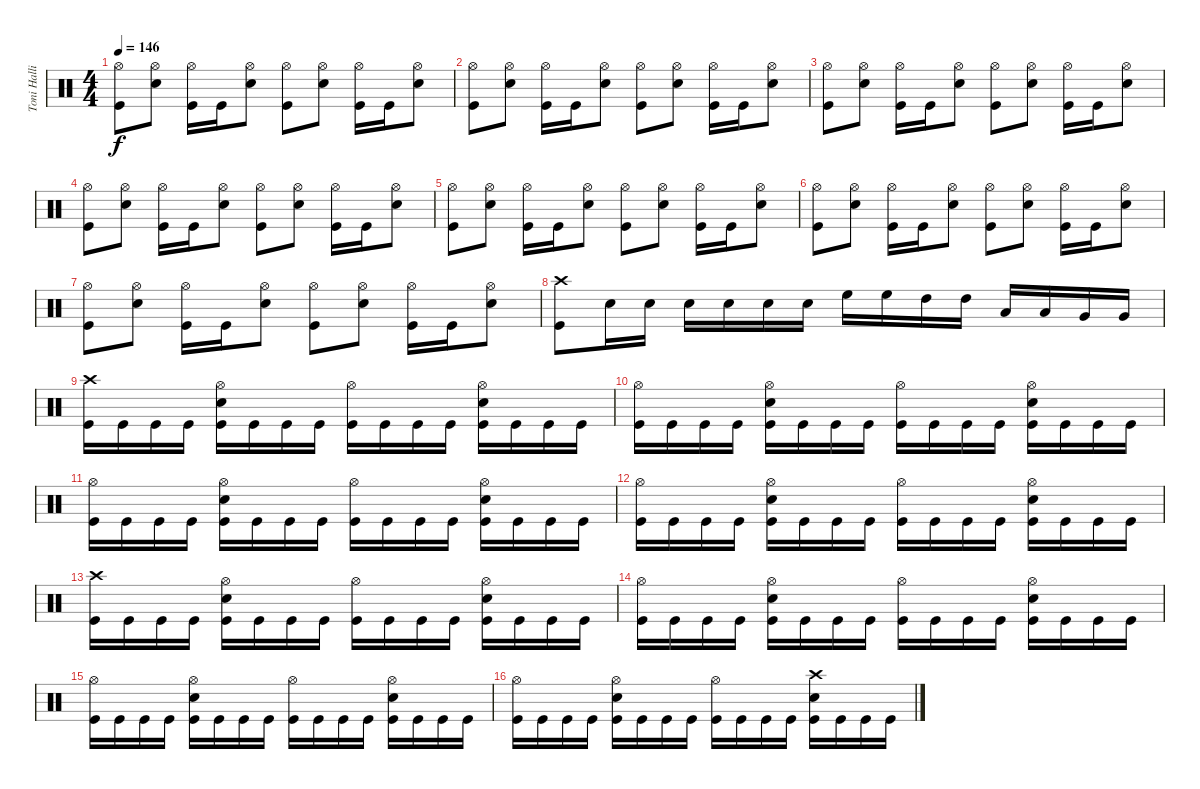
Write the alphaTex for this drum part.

\track ("Toni Hallio" "Toni Halli") {instrument percussion}
\staff {score}
\articulation defaults
\ts (4 4)
\tempo 146
\clef neutral
\ks c
("Hi-Hat (open)" "Kick (hit)").8{dy f} ("Hi-Hat (open)" "Snare (hit) 2").8 ("Hi-Hat (open)" "Kick (hit)").16 "Kick (hit)".16 ("Hi-Hat (open)" "Snare (hit) 2").8 ("Hi-Hat (open)" "Kick (hit)").8 ("Hi-Hat (open)" "Snare (hit) 2").8 ("Hi-Hat (open)" "Kick (hit)").16 "Kick (hit)".16 ("Hi-Hat (open)" "Snare (hit) 2").8 |
("Hi-Hat (open)" "Kick (hit)").8 ("Hi-Hat (open)" "Snare (hit) 2").8 ("Hi-Hat (open)" "Kick (hit)").16 "Kick (hit)".16 ("Hi-Hat (open)" "Snare (hit) 2").8 ("Hi-Hat (open)" "Kick (hit)").8 ("Hi-Hat (open)" "Snare (hit) 2").8 ("Hi-Hat (open)" "Kick (hit)").16 "Kick (hit)".16 ("Hi-Hat (open)" "Snare (hit) 2").8 |
("Hi-Hat (open)" "Kick (hit)").8 ("Hi-Hat (open)" "Snare (hit) 2").8 ("Hi-Hat (open)" "Kick (hit)").16 "Kick (hit)".16 ("Hi-Hat (open)" "Snare (hit) 2").8 ("Hi-Hat (open)" "Kick (hit)").8 ("Hi-Hat (open)" "Snare (hit) 2").8 ("Hi-Hat (open)" "Kick (hit)").16 "Kick (hit)".16 ("Hi-Hat (open)" "Snare (hit) 2").8 |
("Hi-Hat (open)" "Kick (hit)").8 ("Hi-Hat (open)" "Snare (hit) 2").8 ("Hi-Hat (open)" "Kick (hit)").16 "Kick (hit)".16 ("Hi-Hat (open)" "Snare (hit) 2").8 ("Hi-Hat (open)" "Kick (hit)").8 ("Hi-Hat (open)" "Snare (hit) 2").8 ("Hi-Hat (open)" "Kick (hit)").16 "Kick (hit)".16 ("Hi-Hat (open)" "Snare (hit) 2").8 |
("Hi-Hat (open)" "Kick (hit)").8 ("Hi-Hat (open)" "Snare (hit) 2").8 ("Hi-Hat (open)" "Kick (hit)").16 "Kick (hit)".16 ("Hi-Hat (open)" "Snare (hit) 2").8 ("Hi-Hat (open)" "Kick (hit)").8 ("Hi-Hat (open)" "Snare (hit) 2").8 ("Hi-Hat (open)" "Kick (hit)").16 "Kick (hit)".16 ("Hi-Hat (open)" "Snare (hit) 2").8 |
("Hi-Hat (open)" "Kick (hit)").8 ("Hi-Hat (open)" "Snare (hit) 2").8 ("Hi-Hat (open)" "Kick (hit)").16 "Kick (hit)".16 ("Hi-Hat (open)" "Snare (hit) 2").8 ("Hi-Hat (open)" "Kick (hit)").8 ("Hi-Hat (open)" "Snare (hit) 2").8 ("Hi-Hat (open)" "Kick (hit)").16 "Kick (hit)".16 ("Hi-Hat (open)" "Snare (hit) 2").8 |
("Hi-Hat (open)" "Kick (hit)").8 ("Hi-Hat (open)" "Snare (hit) 2").8 ("Hi-Hat (open)" "Kick (hit)").16 "Kick (hit)".16 ("Hi-Hat (open)" "Snare (hit) 2").8 ("Hi-Hat (open)" "Kick (hit)").8 ("Hi-Hat (open)" "Snare (hit) 2").8 ("Hi-Hat (open)" "Kick (hit)").16 "Kick (hit)".16 ("Hi-Hat (open)" "Snare (hit) 2").8 |
("Crash high (hit)" "Kick (hit)").8 "Snare (hit) 2".16 "Snare (hit) 2".16 "Snare (hit) 2".16 "Snare (hit) 2".16 "Snare (hit) 2".16 "Snare (hit) 2".16 "High Floor Tom (hit)".16 "High Floor Tom (hit)".16 "High Tom (hit)".16 "High Tom (hit)".16 "Low Tom (hit)".16 "Low Tom (hit)".16 "Very Low Tom (hit)".16 "Very Low Tom (hit)".16 |
("Crash high (hit)" "Kick (hit)").16 "Kick (hit)".16 "Kick (hit)".16 "Kick (hit)".16 ("Hi-Hat (open)" "Snare (hit) 2" "Kick (hit)").16 "Kick (hit)".16 "Kick (hit)".16 "Kick (hit)".16 ("Hi-Hat (open)" "Kick (hit)").16 "Kick (hit)".16 "Kick (hit)".16 "Kick (hit)".16 ("Hi-Hat (open)" "Snare (hit) 2" "Kick (hit)").16 "Kick (hit)".16 "Kick (hit)".16 "Kick (hit)".16 |
("Hi-Hat (open)" "Kick (hit)").16 "Kick (hit)".16 "Kick (hit)".16 "Kick (hit)".16 ("Hi-Hat (open)" "Snare (hit) 2" "Kick (hit)").16 "Kick (hit)".16 "Kick (hit)".16 "Kick (hit)".16 ("Hi-Hat (open)" "Kick (hit)").16 "Kick (hit)".16 "Kick (hit)".16 "Kick (hit)".16 ("Hi-Hat (open)" "Snare (hit) 2" "Kick (hit)").16 "Kick (hit)".16 "Kick (hit)".16 "Kick (hit)".16 |
("Hi-Hat (open)" "Kick (hit)").16 "Kick (hit)".16 "Kick (hit)".16 "Kick (hit)".16 ("Hi-Hat (open)" "Snare (hit) 2" "Kick (hit)").16 "Kick (hit)".16 "Kick (hit)".16 "Kick (hit)".16 ("Hi-Hat (open)" "Kick (hit)").16 "Kick (hit)".16 "Kick (hit)".16 "Kick (hit)".16 ("Hi-Hat (open)" "Snare (hit) 2" "Kick (hit)").16 "Kick (hit)".16 "Kick (hit)".16 "Kick (hit)".16 |
("Hi-Hat (open)" "Kick (hit)").16 "Kick (hit)".16 "Kick (hit)".16 "Kick (hit)".16 ("Hi-Hat (open)" "Snare (hit) 2" "Kick (hit)").16 "Kick (hit)".16 "Kick (hit)".16 "Kick (hit)".16 ("Hi-Hat (open)" "Kick (hit)").16 "Kick (hit)".16 "Kick (hit)".16 "Kick (hit)".16 ("Hi-Hat (open)" "Snare (hit) 2" "Kick (hit)").16 "Kick (hit)".16 "Kick (hit)".16 "Kick (hit)".16 |
("Crash high (hit)" "Kick (hit)").16 "Kick (hit)".16 "Kick (hit)".16 "Kick (hit)".16 ("Hi-Hat (open)" "Snare (hit) 2" "Kick (hit)").16 "Kick (hit)".16 "Kick (hit)".16 "Kick (hit)".16 ("Hi-Hat (open)" "Kick (hit)").16 "Kick (hit)".16 "Kick (hit)".16 "Kick (hit)".16 ("Hi-Hat (open)" "Snare (hit) 2" "Kick (hit)").16 "Kick (hit)".16 "Kick (hit)".16 "Kick (hit)".16 |
("Hi-Hat (open)" "Kick (hit)").16 "Kick (hit)".16 "Kick (hit)".16 "Kick (hit)".16 ("Hi-Hat (open)" "Snare (hit) 2" "Kick (hit)").16 "Kick (hit)".16 "Kick (hit)".16 "Kick (hit)".16 ("Hi-Hat (open)" "Kick (hit)").16 "Kick (hit)".16 "Kick (hit)".16 "Kick (hit)".16 ("Hi-Hat (open)" "Snare (hit) 2" "Kick (hit)").16 "Kick (hit)".16 "Kick (hit)".16 "Kick (hit)".16 |
("Hi-Hat (open)" "Kick (hit)").16 "Kick (hit)".16 "Kick (hit)".16 "Kick (hit)".16 ("Hi-Hat (open)" "Snare (hit) 2" "Kick (hit)").16 "Kick (hit)".16 "Kick (hit)".16 "Kick (hit)".16 ("Hi-Hat (open)" "Kick (hit)").16 "Kick (hit)".16 "Kick (hit)".16 "Kick (hit)".16 ("Hi-Hat (open)" "Snare (hit) 2" "Kick (hit)").16 "Kick (hit)".16 "Kick (hit)".16 "Kick (hit)".16 |
("Hi-Hat (open)" "Kick (hit)").16 "Kick (hit)".16 "Kick (hit)".16 "Kick (hit)".16 ("Hi-Hat (open)" "Snare (hit) 2" "Kick (hit)").16 "Kick (hit)".16 "Kick (hit)".16 "Kick (hit)".16 ("Hi-Hat (open)" "Kick (hit)").16 "Kick (hit)".16 "Kick (hit)".16 "Kick (hit)".16 ("Crash high (hit)" "Snare (hit) 2" "Kick (hit)").16 "Kick (hit)".16 "Kick (hit)".16 "Kick (hit)".16
